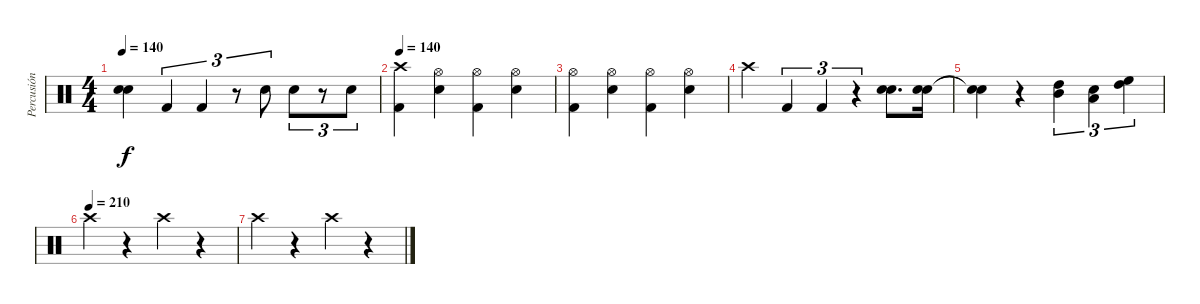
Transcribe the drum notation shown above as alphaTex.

\track ("Percusión" "Percusión") {instrument percussion}
\staff {score}
\articulation defaults
\ts (4 4)
\tempo 140
\clef neutral
\ks c
("Snare (hit)"{t} "Snare (hit)"{t}).4{dy f} "Kick (hit) 2".4{tu (3 2)} "Kick (hit) 2".4{tu (3 2)} r.8{tu (3 2)} "Snare (hit) 2".8{tu (3 2)} "Snare (hit) 2".8{tu (3 2)} r.8{tu (3 2)} "Snare (hit) 2".8{tu (3 2)} |
\tempo 140
("Crash high (hit)" "Kick (hit) 2").4 ("Hi-Hat (open)" "Electric Snare (hit)").4 ("Hi-Hat (open)" "Kick (hit) 2").4 ("Hi-Hat (open)" "Electric Snare (hit)").4 |
("Hi-Hat (open)" "Kick (hit) 2").4 ("Hi-Hat (open)" "Electric Snare (hit)").4 ("Hi-Hat (open)" "Kick (hit) 2").4 ("Hi-Hat (open)" "Electric Snare (hit)").4 |
"Crash high (hit)".4 "Kick (hit) 2".4{tu (3 2)} "Kick (hit) 2".4{tu (3 2)} r.4{tu (3 2)} ("Electric Snare (hit)" "Snare (hit) 2").8{d} ("Electric Snare (hit)" "Snare (hit) 2").16 |
("Snare (hit)"{t} "Snare (hit)"{t}).4 r.4 ("High Tom (hit)" "Mid Tom (hit)").4{tu (3 2)} ("Low Tom (hit)" "Electric Snare (hit)").4{tu (3 2)} ("High Floor Tom (hit)" "High Tom (hit)").4{tu (3 2)} |
\tempo (210)
"Crash high (hit)".4 r.4 "Crash high (hit)".4 r.4 |
"Crash high (hit)".4 r.4 "Crash high (hit)".4 r.4
